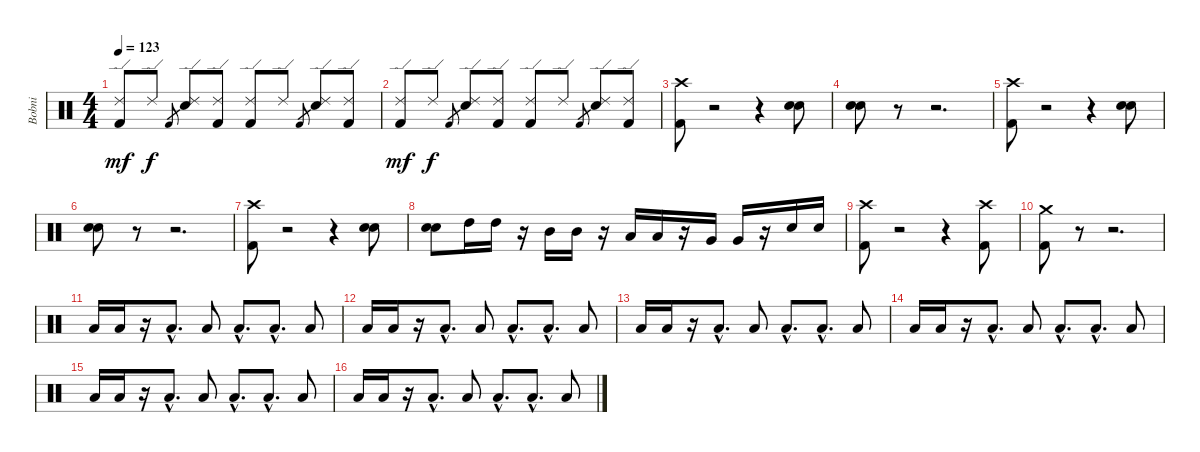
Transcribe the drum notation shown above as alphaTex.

\track ("Bobni" "Bobni") {instrument percussion}
\staff {score}
\articulation defaults
\ts (4 4)
\tempo 123
\clef neutral
\ks c
("Ride (edge) 2" "Kick (hit) 2").8{dy mf} "Ride (edge) 2".8{dy f} "Kick (hit) 2".8{gr} ("Ride (edge) 2" "Snare (hit) 2").8 ("Ride (edge) 2" "Kick (hit) 2").8 ("Ride (edge) 2" "Kick (hit) 2").8 "Ride (edge) 2".8 "Kick (hit) 2".8{gr} ("Ride (edge) 2" "Snare (hit) 2").8 ("Ride (edge) 2" "Kick (hit) 2").8 |
("Ride (edge) 2" "Kick (hit) 2").8{dy mf} "Ride (edge) 2".8{dy f} "Kick (hit) 2".8{gr} ("Ride (edge) 2" "Snare (hit) 2").8 ("Ride (edge) 2" "Kick (hit) 2").8 ("Ride (edge) 2" "Kick (hit) 2").8 "Ride (edge) 2".8 "Kick (hit) 2".8{gr} ("Ride (edge) 2" "Snare (hit) 2").8 ("Ride (edge) 2" "Kick (hit) 2").8 |
("Crash high (hit)" "Kick (hit) 2").8 r.2 r.4 ("Snare (hit) 2" "Snare (hit) 2").8 |
("Snare (hit) 2" "Snare (hit) 2").8 r.8 r.2{d} |
("Crash high (hit)" "Kick (hit) 2").8 r.2 r.4 ("Snare (hit) 2" "Snare (hit) 2").8 |
("Snare (hit) 2" "Snare (hit) 2").8 r.8 r.2{d} |
("Crash high (hit)" "Kick (hit) 2").8 r.2 r.4 ("Snare (hit) 2" "Snare (hit) 2").8 |
("Snare (hit) 2" "Snare (hit) 2").8 "High Tom (hit)".16 "High Tom (hit)".16 r.16 "Mid Tom (hit)".16 "Mid Tom (hit)".16 r.16 "Low Tom (hit)".16 "Low Tom (hit)".16 r.16 "Very Low Tom (hit)".16 "Very Low Tom (hit)".16 r.16 "Snare (hit) 2".16 "Snare (hit) 2".16 |
("Crash high (hit)" "Kick (hit) 2").8 r.2 r.4 ("Crash high (hit)" "Kick (hit) 2").8 |
("Crash medium (hit)" "Kick (hit) 2").8 r.8 r.2{d} |
"Low Tom (hit)".16 "Low Tom (hit)".16 r.16 "Low Tom (hit)"{hac}.8{d} "Low Tom (hit)".8 "Low Tom (hit)"{hac}.8{d} "Low Tom (hit)"{hac}.8{d} "Low Tom (hit)".8 |
"Low Tom (hit)".16 "Low Tom (hit)".16 r.16 "Low Tom (hit)"{hac}.8{d} "Low Tom (hit)".8 "Low Tom (hit)"{hac}.8{d} "Low Tom (hit)"{hac}.8{d} "Low Tom (hit)".8 |
"Low Tom (hit)".16 "Low Tom (hit)".16 r.16 "Low Tom (hit)"{hac}.8{d} "Low Tom (hit)".8 "Low Tom (hit)"{hac}.8{d} "Low Tom (hit)"{hac}.8{d} "Low Tom (hit)".8 |
"Low Tom (hit)".16 "Low Tom (hit)".16 r.16 "Low Tom (hit)"{hac}.8{d} "Low Tom (hit)".8 "Low Tom (hit)"{hac}.8{d} "Low Tom (hit)"{hac}.8{d} "Low Tom (hit)".8 |
"Low Tom (hit)".16 "Low Tom (hit)".16 r.16 "Low Tom (hit)"{hac}.8{d} "Low Tom (hit)".8 "Low Tom (hit)"{hac}.8{d} "Low Tom (hit)"{hac}.8{d} "Low Tom (hit)".8 |
"Low Tom (hit)".16 "Low Tom (hit)".16 r.16 "Low Tom (hit)"{hac}.8{d} "Low Tom (hit)".8 "Low Tom (hit)"{hac}.8{d} "Low Tom (hit)"{hac}.8{d} "Low Tom (hit)".8
